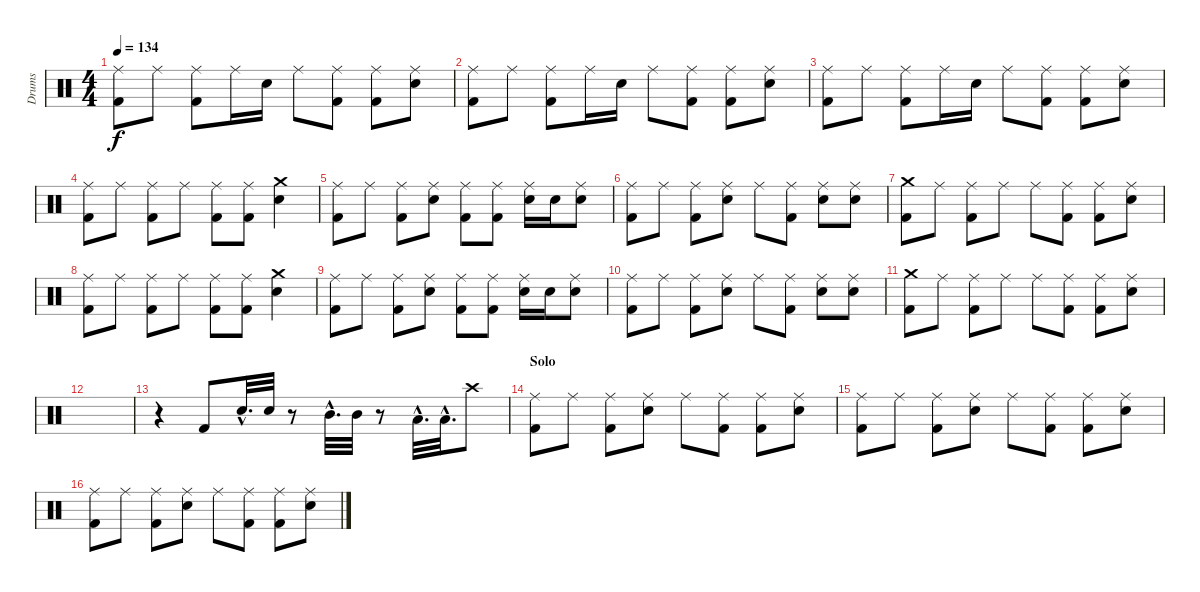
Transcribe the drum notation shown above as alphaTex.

\track ("Drums" "Drums") {instrument percussion}
\staff {score}
\articulation defaults
\ts (4 4)
\tempo 134
\clef neutral
\ks c
("Ride (middle)" "Kick (hit) 2").8{dy f} "Ride (middle)".8 ("Ride (middle)" "Kick (hit) 2").8 "Ride (middle)".16 "Snare (hit) 2".16 "Ride (middle)".8 ("Ride (middle)" "Kick (hit) 2").8 ("Ride (middle)" "Kick (hit) 2").8 ("Ride (middle)" "Snare (hit) 2").8 |
("Ride (middle)" "Kick (hit) 2").8 "Ride (middle)".8 ("Ride (middle)" "Kick (hit) 2").8 "Ride (middle)".16 "Snare (hit) 2".16 "Ride (middle)".8 ("Ride (middle)" "Kick (hit) 2").8 ("Ride (middle)" "Kick (hit) 2").8 ("Ride (middle)" "Snare (hit) 2").8 |
("Ride (middle)" "Kick (hit) 2").8 "Ride (middle)".8 ("Ride (middle)" "Kick (hit) 2").8 "Ride (middle)".16 "Snare (hit) 2".16 "Ride (middle)".8 ("Ride (middle)" "Kick (hit) 2").8 ("Ride (middle)" "Kick (hit) 2").8 ("Ride (middle)" "Snare (hit) 2").8 |
("Ride (middle)" "Kick (hit) 2").8 "Ride (middle)".8 ("Ride (middle)" "Kick (hit) 2").8 "Ride (middle)".8 ("Ride (middle)" "Kick (hit) 2").8 ("Ride (middle)" "Kick (hit) 2").8 ("Crash medium (hit)" "Snare (hit) 2").4 |
("Ride (middle)" "Kick (hit) 2").8 "Ride (middle)".8 ("Ride (middle)" "Kick (hit) 2").8 ("Ride (middle)" "Snare (hit) 2").8 ("Ride (middle)" "Kick (hit) 2").8 ("Ride (middle)" "Kick (hit) 2").8 ("Ride (middle)" "Snare (hit) 2").16 "Snare (hit) 2".16 ("Ride (middle)" "Snare (hit) 2").8 |
("Ride (middle)" "Kick (hit) 2").8 "Ride (middle)".8 ("Ride (middle)" "Kick (hit) 2").8 ("Ride (middle)" "Snare (hit) 2").8 "Ride (middle)".8 ("Ride (middle)" "Kick (hit) 2").8 ("Ride (middle)" "Snare (hit) 2").8 ("Ride (middle)" "Snare (hit) 2").8 |
("Crash medium (hit)" "Kick (hit) 2").8 "Ride (middle)".8 ("Ride (middle)" "Kick (hit) 2").8 "Ride (middle)".8 "Ride (middle)".8 ("Ride (middle)" "Kick (hit) 2").8 ("Ride (middle)" "Kick (hit) 2").8 ("Ride (middle)" "Snare (hit) 2").8 |
("Ride (middle)" "Kick (hit) 2").8 "Ride (middle)".8 ("Ride (middle)" "Kick (hit) 2").8 "Ride (middle)".8 ("Ride (middle)" "Kick (hit) 2").8 ("Ride (middle)" "Kick (hit) 2").8 ("Crash medium (hit)" "Snare (hit) 2").4 |
("Ride (middle)" "Kick (hit) 2").8 "Ride (middle)".8 ("Ride (middle)" "Kick (hit) 2").8 ("Ride (middle)" "Snare (hit) 2").8 ("Ride (middle)" "Kick (hit) 2").8 ("Ride (middle)" "Kick (hit) 2").8 ("Ride (middle)" "Snare (hit) 2").16 "Snare (hit) 2".16 ("Ride (middle)" "Snare (hit) 2").8 |
("Ride (middle)" "Kick (hit) 2").8 "Ride (middle)".8 ("Ride (middle)" "Kick (hit) 2").8 ("Ride (middle)" "Snare (hit) 2").8 "Ride (middle)".8 ("Ride (middle)" "Kick (hit) 2").8 ("Ride (middle)" "Snare (hit) 2").8 ("Ride (middle)" "Snare (hit) 2").8 |
("Crash medium (hit)" "Kick (hit) 2").8 "Ride (middle)".8 ("Ride (middle)" "Kick (hit) 2").8 "Ride (middle)".8 "Ride (middle)".8 ("Ride (middle)" "Kick (hit) 2").8 ("Ride (middle)" "Kick (hit) 2").8 ("Ride (middle)" "Snare (hit) 2").8 |
|
r.4 "Kick (hit) 2".8 "Snare (hit) 2"{hac}.32{d} "Snare (hit) 2".32 r.8 "Mid Tom (hit)"{hac}.32{d} "Mid Tom (hit)".32 r.8 "Low Tom (hit)"{hac}.32{d} "Low Tom (hit)"{hac}.32{d} "Crash high (hit)".8 |
\section ("" "Solo")
("Ride (middle)" "Kick (hit) 2").8 "Ride (middle)".8 ("Ride (middle)" "Kick (hit) 2").8 ("Ride (middle)" "Snare (hit) 2").8 "Ride (middle)".8 ("Ride (middle)" "Kick (hit) 2").8 ("Ride (middle)" "Kick (hit) 2").8 ("Ride (middle)" "Snare (hit) 2").8 |
("Ride (middle)" "Kick (hit) 2").8 "Ride (middle)".8 ("Ride (middle)" "Kick (hit) 2").8 ("Ride (middle)" "Snare (hit) 2").8 "Ride (middle)".8 ("Ride (middle)" "Kick (hit) 2").8 ("Ride (middle)" "Kick (hit) 2").8 ("Ride (middle)" "Snare (hit) 2").8 |
("Ride (middle)" "Kick (hit) 2").8 "Ride (middle)".8 ("Ride (middle)" "Kick (hit) 2").8 ("Ride (middle)" "Snare (hit) 2").8 "Ride (middle)".8 ("Ride (middle)" "Kick (hit) 2").8 ("Ride (middle)" "Kick (hit) 2").8 ("Ride (middle)" "Snare (hit) 2").8
